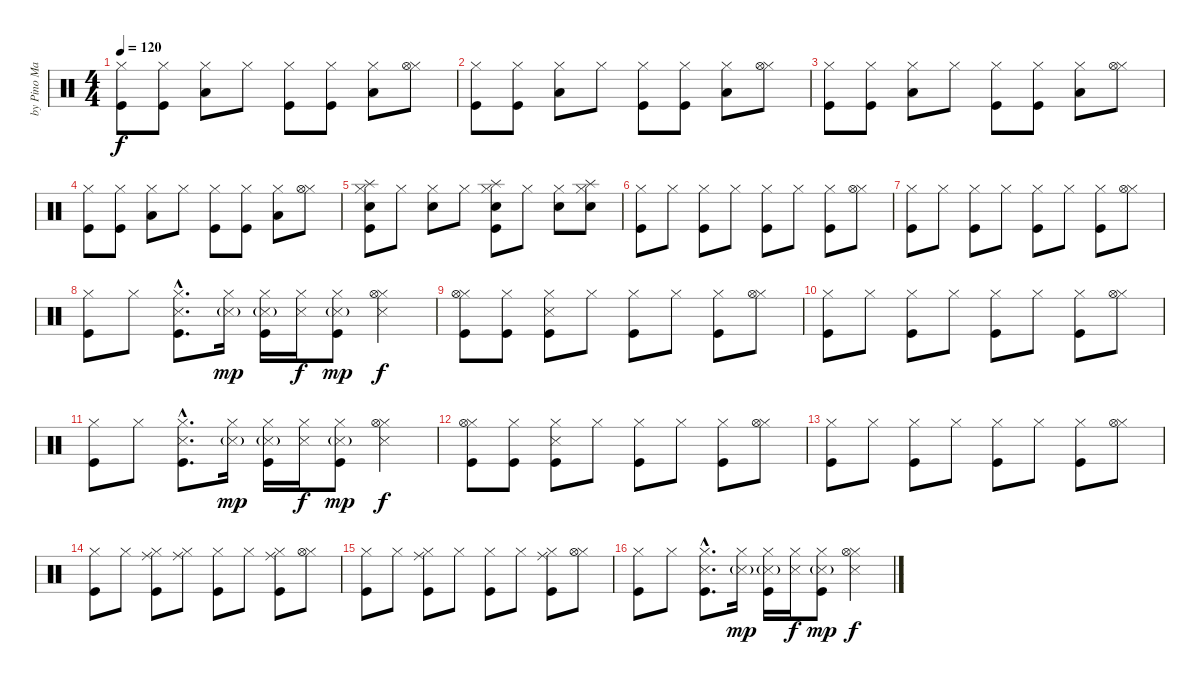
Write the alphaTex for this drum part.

\track ("by Pino Mariconda - e Gianni De Vita" "by Pino Ma") {instrument percussion}
\staff {score}
\articulation defaults
\ts (4 4)
\tempo 120
\clef neutral
\ks c
("Hi-Hat (closed)" "Kick (hit)").8{dy f} ("Hi-Hat (closed)" "Kick (hit)").8 ("Hi-Hat (closed)" "Low Tom (hit)").8 "Hi-Hat (closed)".8 ("Hi-Hat (closed)" "Kick (hit)").8 ("Hi-Hat (closed)" "Kick (hit)").8 ("Hi-Hat (closed)" "Low Tom (hit)").8 ("Hi-Hat (closed)" "Hi-Hat (open)").8 |
("Hi-Hat (closed)" "Kick (hit)").8 ("Hi-Hat (closed)" "Kick (hit)").8 ("Hi-Hat (closed)" "Low Tom (hit)").8 "Hi-Hat (closed)".8 ("Hi-Hat (closed)" "Kick (hit)").8 ("Hi-Hat (closed)" "Kick (hit)").8 ("Hi-Hat (closed)" "Low Tom (hit)").8 ("Hi-Hat (closed)" "Hi-Hat (open)").8 |
("Hi-Hat (closed)" "Kick (hit)").8 ("Hi-Hat (closed)" "Kick (hit)").8 ("Hi-Hat (closed)" "Low Tom (hit)").8 "Hi-Hat (closed)".8 ("Hi-Hat (closed)" "Kick (hit)").8 ("Hi-Hat (closed)" "Kick (hit)").8 ("Hi-Hat (closed)" "Low Tom (hit)").8 ("Hi-Hat (closed)" "Hi-Hat (open)").8 |
("Hi-Hat (closed)" "Kick (hit)").8 ("Hi-Hat (closed)" "Kick (hit)").8 ("Hi-Hat (closed)" "Low Tom (hit)").8 "Hi-Hat (closed)".8 ("Hi-Hat (closed)" "Kick (hit)").8 ("Hi-Hat (closed)" "Kick (hit)").8 ("Hi-Hat (closed)" "Low Tom (hit)").8 ("Hi-Hat (closed)" "Hi-Hat (open)").8 |
("Splash (hit)" "Hi-Hat (closed)" "Snare (hit) 2" "Kick (hit)").8 "Hi-Hat (closed)".8 ("Hi-Hat (closed)" "Snare (hit) 2").8 "Hi-Hat (closed)".8 ("Splash (hit)" "Hi-Hat (closed)" "Snare (hit) 2" "Kick (hit)").8 "Hi-Hat (closed)".8 ("Hi-Hat (closed)" "Snare (hit) 2").8 ("Splash (hit)" "Hi-Hat (closed)" "Snare (hit) 2").8 |
("Hi-Hat (closed)" "Kick (hit)").8 "Hi-Hat (closed)".8 ("Hi-Hat (closed)" "Kick (hit)").8 "Hi-Hat (closed)".8 ("Hi-Hat (closed)" "Kick (hit)").8 "Hi-Hat (closed)".8 ("Hi-Hat (closed)" "Kick (hit)").8 ("Hi-Hat (closed)" "Hi-Hat (open)").8 |
("Hi-Hat (closed)" "Kick (hit)").8 "Hi-Hat (closed)".8 ("Hi-Hat (closed)" "Kick (hit)").8 "Hi-Hat (closed)".8 ("Hi-Hat (closed)" "Kick (hit)").8 "Hi-Hat (closed)".8 ("Hi-Hat (closed)" "Kick (hit)").8 ("Hi-Hat (closed)" "Hi-Hat (open)").8 |
("Hi-Hat (closed)" "Kick (hit)").8 "Hi-Hat (closed)".8 ("Hi-Hat (closed)"{hac} "Kick (hit)"{hac} "Snare (side stick) 3"{hac}).8{d} ("Hi-Hat (closed)" "Snare (side stick) 3"{g}).16{dy mp} ("Hi-Hat (closed)" "Kick (hit)" "Snare (side stick) 3"{g}).16 ("Hi-Hat (closed)" "Snare (side stick) 3").16{dy f} ("Hi-Hat (closed)" "Kick (hit)" "Snare (side stick) 3"{g}).8{dy mp} ("Hi-Hat (closed)" "Hi-Hat (open)" "Snare (side stick) 3").4{dy f} |
("Hi-Hat (closed)" "Kick (hit)" "Hi-Hat (open)").8 ("Hi-Hat (closed)" "Kick (hit)").8 ("Hi-Hat (closed)" "Kick (hit)" "Snare (side stick) 3").8 "Hi-Hat (closed)".8 ("Hi-Hat (closed)" "Kick (hit)").8 "Hi-Hat (closed)".8 ("Hi-Hat (closed)" "Kick (hit)").8 ("Hi-Hat (closed)" "Hi-Hat (open)").8 |
("Hi-Hat (closed)" "Kick (hit)").8 "Hi-Hat (closed)".8 ("Hi-Hat (closed)" "Kick (hit)").8 "Hi-Hat (closed)".8 ("Hi-Hat (closed)" "Kick (hit)").8 "Hi-Hat (closed)".8 ("Hi-Hat (closed)" "Kick (hit)").8 ("Hi-Hat (closed)" "Hi-Hat (open)").8 |
("Hi-Hat (closed)" "Kick (hit)").8 "Hi-Hat (closed)".8 ("Hi-Hat (closed)"{hac} "Kick (hit)"{hac} "Snare (side stick) 3"{hac}).8{d} ("Hi-Hat (closed)" "Snare (side stick) 3"{g}).16{dy mp} ("Hi-Hat (closed)" "Kick (hit)" "Snare (side stick) 3"{g}).16 ("Hi-Hat (closed)" "Snare (side stick) 3").16{dy f} ("Hi-Hat (closed)" "Kick (hit)" "Snare (side stick) 3"{g}).8{dy mp} ("Hi-Hat (closed)" "Hi-Hat (open)" "Snare (side stick) 3").4{dy f} |
("Hi-Hat (closed)" "Kick (hit)" "Hi-Hat (open)").8 ("Hi-Hat (closed)" "Kick (hit)").8 ("Hi-Hat (closed)" "Kick (hit)" "Snare (side stick) 3").8 "Hi-Hat (closed)".8 ("Hi-Hat (closed)" "Kick (hit)").8 "Hi-Hat (closed)".8 ("Hi-Hat (closed)" "Kick (hit)").8 ("Hi-Hat (closed)" "Hi-Hat (open)").8 |
("Hi-Hat (closed)" "Kick (hit)").8 "Hi-Hat (closed)".8 ("Hi-Hat (closed)" "Kick (hit)").8 "Hi-Hat (closed)".8 ("Hi-Hat (closed)" "Kick (hit)").8 "Hi-Hat (closed)".8 ("Hi-Hat (closed)" "Kick (hit)").8 ("Hi-Hat (closed)" "Hi-Hat (open)").8 |
("Hi-Hat (closed)" "Kick (hit)").8 "Hi-Hat (closed)".8 ("Ride (middle)" "Hi-Hat (closed)" "Kick (hit)").8 ("Ride (middle)" "Hi-Hat (closed)").8 ("Hi-Hat (closed)" "Kick (hit)").8 "Hi-Hat (closed)".8 ("Ride (middle)" "Hi-Hat (closed)" "Kick (hit)").8 ("Hi-Hat (closed)" "Hi-Hat (open)").8 |
("Hi-Hat (closed)" "Kick (hit)").8 "Hi-Hat (closed)".8 ("Ride (middle)" "Hi-Hat (closed)" "Kick (hit)").8 "Hi-Hat (closed)".8 ("Hi-Hat (closed)" "Kick (hit)").8 "Hi-Hat (closed)".8 ("Ride (middle)" "Hi-Hat (closed)" "Kick (hit)").8 ("Hi-Hat (closed)" "Hi-Hat (open)").8 |
("Hi-Hat (closed)" "Kick (hit)").8 "Hi-Hat (closed)".8 ("Hi-Hat (closed)"{hac} "Kick (hit)"{hac} "Snare (side stick) 3"{hac}).8{d} ("Hi-Hat (closed)" "Snare (side stick) 3"{g}).16{dy mp} ("Hi-Hat (closed)" "Kick (hit)" "Snare (side stick) 3"{g}).16 ("Hi-Hat (closed)" "Snare (side stick) 3").16{dy f} ("Hi-Hat (closed)" "Kick (hit)" "Snare (side stick) 3"{g}).8{dy mp} ("Hi-Hat (closed)" "Hi-Hat (open)" "Snare (side stick) 3").4{dy f}
